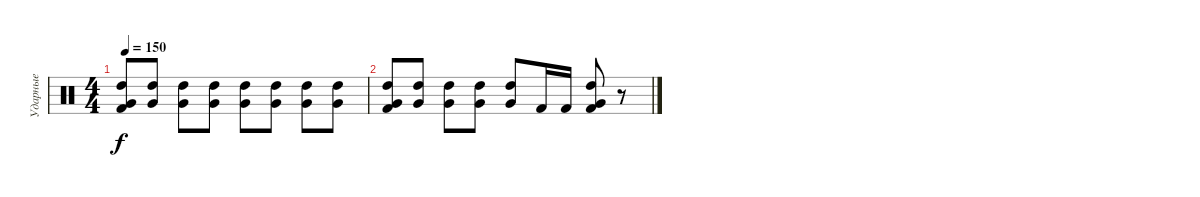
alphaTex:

\track ("Ударные" "Ударные") {instrument percussion}
\staff {score}
\articulation defaults
\ts (4 4)
\tempo 150
\clef neutral
\ks c
("High Tom (hit)" "Very Low Tom (hit)" "Kick (hit) 2").8{dy f} ("High Tom (hit)" "Very Low Tom (hit)").8 ("High Tom (hit)" "Very Low Tom (hit)").8 ("High Tom (hit)" "Very Low Tom (hit)").8 ("High Tom (hit)" "Very Low Tom (hit)").8 ("High Tom (hit)" "Very Low Tom (hit)").8 ("High Tom (hit)" "Very Low Tom (hit)").8 ("High Tom (hit)" "Very Low Tom (hit)").8 |
("High Tom (hit)" "Very Low Tom (hit)" "Kick (hit) 2").8 ("High Tom (hit)" "Very Low Tom (hit)").8 ("High Tom (hit)" "Very Low Tom (hit)").8 ("High Tom (hit)" "Very Low Tom (hit)").8 ("High Tom (hit)" "Very Low Tom (hit)").8 "Kick (hit) 2".16 "Kick (hit) 2".16 ("High Tom (hit)" "Very Low Tom (hit)" "Kick (hit) 2").8 r.8
